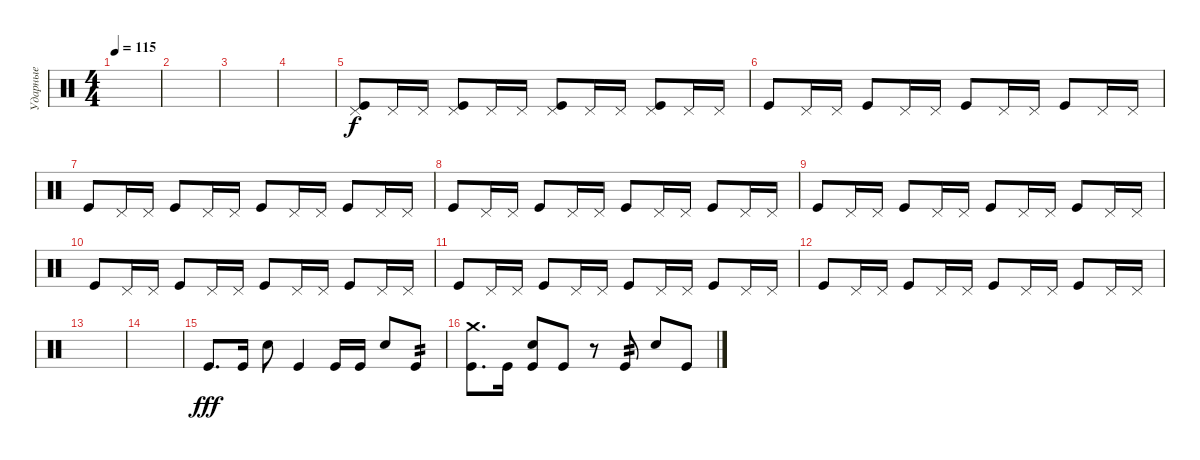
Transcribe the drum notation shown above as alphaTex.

\track ("Ударные" "Ударные") {instrument percussion}
\staff {score}
\articulation defaults
\ts (4 4)
\tempo 115
\clef neutral
\ks c
|
|
|
|
("Pedal Hi-Hat (hit)" "Kick (hit)").8 "Pedal Hi-Hat (hit)".16 "Pedal Hi-Hat (hit)".16 ("Pedal Hi-Hat (hit)" "Kick (hit)").8 "Pedal Hi-Hat (hit)".16 "Pedal Hi-Hat (hit)".16 ("Pedal Hi-Hat (hit)" "Kick (hit)").8 "Pedal Hi-Hat (hit)".16 "Pedal Hi-Hat (hit)".16 ("Pedal Hi-Hat (hit)" "Kick (hit)").8 "Pedal Hi-Hat (hit)".16 "Pedal Hi-Hat (hit)".16 |
"Kick (hit)".8 "Pedal Hi-Hat (hit)".16 "Pedal Hi-Hat (hit)".16 "Kick (hit)".8 "Pedal Hi-Hat (hit)".16 "Pedal Hi-Hat (hit)".16 "Kick (hit)".8 "Pedal Hi-Hat (hit)".16 "Pedal Hi-Hat (hit)".16 "Kick (hit)".8 "Pedal Hi-Hat (hit)".16 "Pedal Hi-Hat (hit)".16 |
"Kick (hit)".8 "Pedal Hi-Hat (hit)".16 "Pedal Hi-Hat (hit)".16 "Kick (hit)".8 "Pedal Hi-Hat (hit)".16 "Pedal Hi-Hat (hit)".16 "Kick (hit)".8 "Pedal Hi-Hat (hit)".16 "Pedal Hi-Hat (hit)".16 "Kick (hit)".8 "Pedal Hi-Hat (hit)".16 "Pedal Hi-Hat (hit)".16 |
"Kick (hit)".8 "Pedal Hi-Hat (hit)".16 "Pedal Hi-Hat (hit)".16 "Kick (hit)".8 "Pedal Hi-Hat (hit)".16 "Pedal Hi-Hat (hit)".16 "Kick (hit)".8 "Pedal Hi-Hat (hit)".16 "Pedal Hi-Hat (hit)".16 "Kick (hit)".8 "Pedal Hi-Hat (hit)".16 "Pedal Hi-Hat (hit)".16 |
"Kick (hit)".8 "Pedal Hi-Hat (hit)".16 "Pedal Hi-Hat (hit)".16 "Kick (hit)".8 "Pedal Hi-Hat (hit)".16 "Pedal Hi-Hat (hit)".16 "Kick (hit)".8 "Pedal Hi-Hat (hit)".16 "Pedal Hi-Hat (hit)".16 "Kick (hit)".8 "Pedal Hi-Hat (hit)".16 "Pedal Hi-Hat (hit)".16 |
"Kick (hit)".8 "Pedal Hi-Hat (hit)".16 "Pedal Hi-Hat (hit)".16 "Kick (hit)".8 "Pedal Hi-Hat (hit)".16 "Pedal Hi-Hat (hit)".16 "Kick (hit)".8 "Pedal Hi-Hat (hit)".16 "Pedal Hi-Hat (hit)".16 "Kick (hit)".8 "Pedal Hi-Hat (hit)".16 "Pedal Hi-Hat (hit)".16 |
"Kick (hit)".8 "Pedal Hi-Hat (hit)".16 "Pedal Hi-Hat (hit)".16 "Kick (hit)".8 "Pedal Hi-Hat (hit)".16 "Pedal Hi-Hat (hit)".16 "Kick (hit)".8 "Pedal Hi-Hat (hit)".16 "Pedal Hi-Hat (hit)".16 "Kick (hit)".8 "Pedal Hi-Hat (hit)".16 "Pedal Hi-Hat (hit)".16 |
"Kick (hit)".8 "Pedal Hi-Hat (hit)".16 "Pedal Hi-Hat (hit)".16 "Kick (hit)".8 "Pedal Hi-Hat (hit)".16 "Pedal Hi-Hat (hit)".16 "Kick (hit)".8 "Pedal Hi-Hat (hit)".16 "Pedal Hi-Hat (hit)".16 "Kick (hit)".8 "Pedal Hi-Hat (hit)".16 "Pedal Hi-Hat (hit)".16 |
|
|
"Kick (hit)".8{d dy fff} "Kick (hit)".16 "Electric Snare (hit)".8 "Kick (hit)".4 "Kick (hit)".16 "Kick (hit)".16 "Electric Snare (hit)".8 "Kick (hit)".8{tp 2} |
("Crash medium (hit)" "Kick (hit)").8{d} "Kick (hit)".16 ("Electric Snare (hit)" "Kick (hit)").8 "Kick (hit)".8 r.8 "Kick (hit)".8{tp 2} "Electric Snare (hit)".8 "Kick (hit)".8
